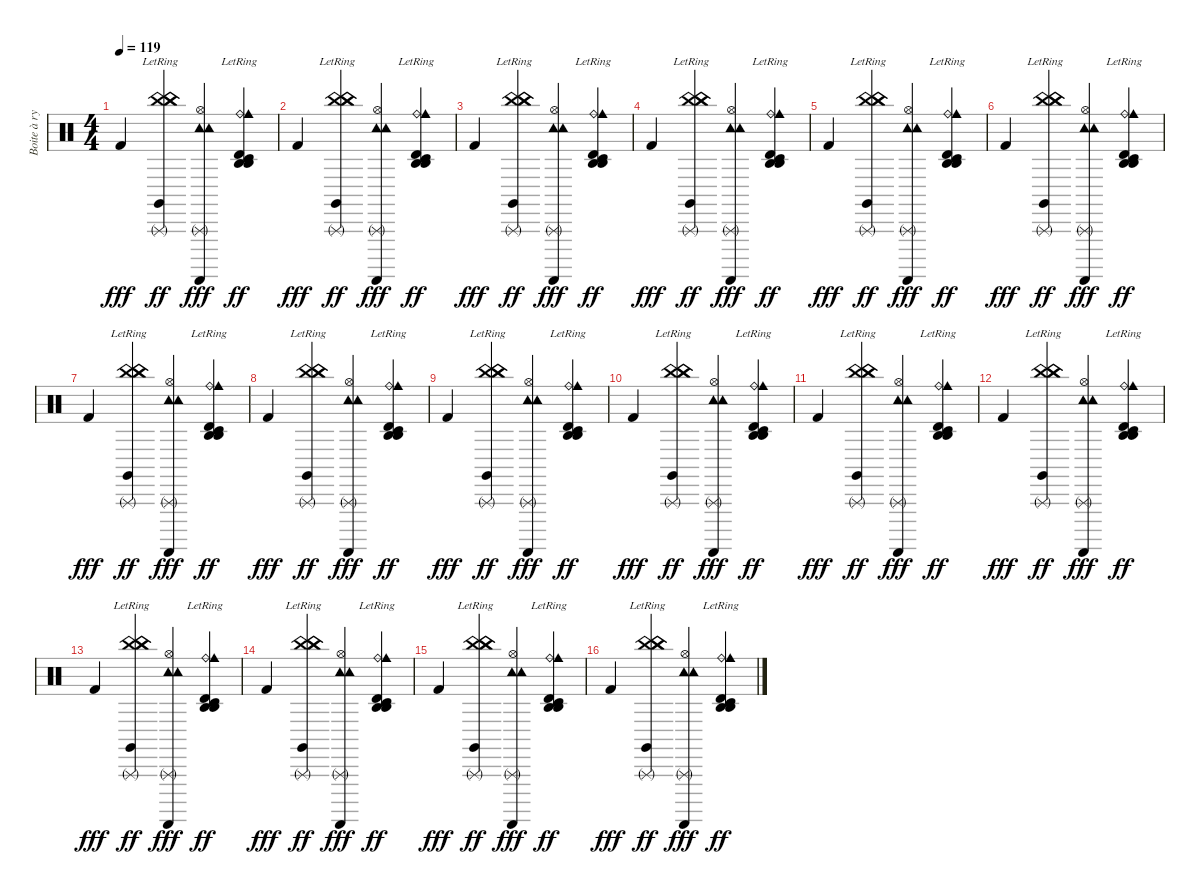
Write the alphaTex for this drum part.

\track ("Boite à rythme" "Boite à ry") {instrument percussion}
\staff {score}
\articulation defaults
\ts (4 4)
\tempo 119
\clef neutral
\ks c "Kick (hit) 2".4{dy fff}
("China (hit)" "China (hit)" "Triangle (rnute)" "Claves (hit)" "China (hit)"{lr}).4{dy ff} ("Hi-Hat (open)" "Tambourine (hit)" "Triangle (rnute)" "Guiro (scrap-return)" "Tambourine (hit)").4{dy fff} ("Ride (bell)" "Agogo high (hit)"{lr} "Timbale high (hit)" "Agogo high (hit)" "Cowbell medium (hit)" "Timbale low (hit)").4{dy ff} |
"Kick (hit) 2".4{dy fff} ("China (hit)" "China (hit)" "Triangle (rnute)" "Claves (hit)" "China (hit)"{lr}).4{dy ff} ("Hi-Hat (open)" "Tambourine (hit)" "Triangle (rnute)" "Guiro (scrap-return)" "Tambourine (hit)").4{dy fff} ("Ride (bell)" "Agogo high (hit)"{lr} "Timbale high (hit)" "Agogo high (hit)" "Cowbell medium (hit)" "Timbale low (hit)").4{dy ff} |
"Kick (hit) 2".4{dy fff} ("China (hit)" "China (hit)" "Triangle (rnute)" "Claves (hit)" "China (hit)"{lr}).4{dy ff} ("Hi-Hat (open)" "Tambourine (hit)" "Triangle (rnute)" "Guiro (scrap-return)" "Tambourine (hit)").4{dy fff} ("Ride (bell)" "Agogo high (hit)"{lr} "Timbale high (hit)" "Agogo high (hit)" "Cowbell medium (hit)" "Timbale low (hit)").4{dy ff} |
"Kick (hit) 2".4{dy fff} ("China (hit)" "China (hit)" "Triangle (rnute)" "Claves (hit)" "China (hit)"{lr}).4{dy ff} ("Hi-Hat (open)" "Tambourine (hit)" "Triangle (rnute)" "Guiro (scrap-return)" "Tambourine (hit)").4{dy fff} ("Ride (bell)" "Agogo high (hit)"{lr} "Timbale high (hit)" "Agogo high (hit)" "Cowbell medium (hit)" "Timbale low (hit)").4{dy ff} |
"Kick (hit) 2".4{dy fff} ("China (hit)" "China (hit)" "Triangle (rnute)" "Claves (hit)" "China (hit)"{lr}).4{dy ff} ("Hi-Hat (open)" "Tambourine (hit)" "Triangle (rnute)" "Guiro (scrap-return)" "Tambourine (hit)").4{dy fff} ("Ride (bell)" "Agogo high (hit)"{lr} "Timbale high (hit)" "Agogo high (hit)" "Cowbell medium (hit)" "Timbale low (hit)").4{dy ff} |
"Kick (hit) 2".4{dy fff} ("China (hit)" "China (hit)" "Triangle (rnute)" "Claves (hit)" "China (hit)"{lr}).4{dy ff} ("Hi-Hat (open)" "Tambourine (hit)" "Triangle (rnute)" "Guiro (scrap-return)" "Tambourine (hit)").4{dy fff} ("Ride (bell)" "Agogo high (hit)"{lr} "Timbale high (hit)" "Agogo high (hit)" "Cowbell medium (hit)" "Timbale low (hit)").4{dy ff} |
"Kick (hit) 2".4{dy fff} ("China (hit)" "China (hit)" "Triangle (rnute)" "Claves (hit)" "China (hit)"{lr}).4{dy ff} ("Hi-Hat (open)" "Tambourine (hit)" "Triangle (rnute)" "Guiro (scrap-return)" "Tambourine (hit)").4{dy fff} ("Ride (bell)" "Agogo high (hit)"{lr} "Timbale high (hit)" "Agogo high (hit)" "Cowbell medium (hit)" "Timbale low (hit)").4{dy ff} |
"Kick (hit) 2".4{dy fff} ("China (hit)" "China (hit)" "Triangle (rnute)" "Claves (hit)" "China (hit)"{lr}).4{dy ff} ("Hi-Hat (open)" "Tambourine (hit)" "Triangle (rnute)" "Guiro (scrap-return)" "Tambourine (hit)").4{dy fff} ("Ride (bell)" "Agogo high (hit)"{lr} "Timbale high (hit)" "Agogo high (hit)" "Cowbell medium (hit)" "Timbale low (hit)").4{dy ff} |
"Kick (hit) 2".4{dy fff} ("China (hit)" "China (hit)" "Triangle (rnute)" "Claves (hit)" "China (hit)"{lr}).4{dy ff} ("Hi-Hat (open)" "Tambourine (hit)" "Triangle (rnute)" "Guiro (scrap-return)" "Tambourine (hit)").4{dy fff} ("Ride (bell)" "Agogo high (hit)"{lr} "Timbale high (hit)" "Agogo high (hit)" "Cowbell medium (hit)" "Timbale low (hit)").4{dy ff} |
"Kick (hit) 2".4{dy fff} ("China (hit)" "China (hit)" "Triangle (rnute)" "Claves (hit)" "China (hit)"{lr}).4{dy ff} ("Hi-Hat (open)" "Tambourine (hit)" "Triangle (rnute)" "Guiro (scrap-return)" "Tambourine (hit)").4{dy fff} ("Ride (bell)" "Agogo high (hit)"{lr} "Timbale high (hit)" "Agogo high (hit)" "Cowbell medium (hit)" "Timbale low (hit)").4{dy ff} |
"Kick (hit) 2".4{dy fff} ("China (hit)" "China (hit)" "Triangle (rnute)" "Claves (hit)" "China (hit)"{lr}).4{dy ff} ("Hi-Hat (open)" "Tambourine (hit)" "Triangle (rnute)" "Guiro (scrap-return)" "Tambourine (hit)").4{dy fff} ("Ride (bell)" "Agogo high (hit)"{lr} "Timbale high (hit)" "Agogo high (hit)" "Cowbell medium (hit)" "Timbale low (hit)").4{dy ff} |
"Kick (hit) 2".4{dy fff} ("China (hit)" "China (hit)" "Triangle (rnute)" "Claves (hit)" "China (hit)"{lr}).4{dy ff} ("Hi-Hat (open)" "Tambourine (hit)" "Triangle (rnute)" "Guiro (scrap-return)" "Tambourine (hit)").4{dy fff} ("Ride (bell)" "Agogo high (hit)"{lr} "Timbale high (hit)" "Agogo high (hit)" "Cowbell medium (hit)" "Timbale low (hit)").4{dy ff} |
"Kick (hit) 2".4{dy fff} ("China (hit)" "China (hit)" "Triangle (rnute)" "Claves (hit)" "China (hit)"{lr}).4{dy ff} ("Hi-Hat (open)" "Tambourine (hit)" "Triangle (rnute)" "Guiro (scrap-return)" "Tambourine (hit)").4{dy fff} ("Ride (bell)" "Agogo high (hit)"{lr} "Timbale high (hit)" "Agogo high (hit)" "Cowbell medium (hit)" "Timbale low (hit)").4{dy ff} |
"Kick (hit) 2".4{dy fff} ("China (hit)" "China (hit)" "Triangle (rnute)" "Claves (hit)" "China (hit)"{lr}).4{dy ff} ("Hi-Hat (open)" "Tambourine (hit)" "Triangle (rnute)" "Guiro (scrap-return)" "Tambourine (hit)").4{dy fff} ("Ride (bell)" "Agogo high (hit)"{lr} "Timbale high (hit)" "Agogo high (hit)" "Cowbell medium (hit)" "Timbale low (hit)").4{dy ff} |
"Kick (hit) 2".4{dy fff} ("China (hit)" "China (hit)" "Triangle (rnute)" "Claves (hit)" "China (hit)"{lr}).4{dy ff} ("Hi-Hat (open)" "Tambourine (hit)" "Triangle (rnute)" "Guiro (scrap-return)" "Tambourine (hit)").4{dy fff} ("Ride (bell)" "Agogo high (hit)"{lr} "Timbale high (hit)" "Agogo high (hit)" "Cowbell medium (hit)" "Timbale low (hit)").4{dy ff} |
"Kick (hit) 2".4{dy fff} ("China (hit)" "China (hit)" "Triangle (rnute)" "Claves (hit)" "China (hit)"{lr}).4{dy ff} ("Hi-Hat (open)" "Tambourine (hit)" "Triangle (rnute)" "Guiro (scrap-return)" "Tambourine (hit)").4{dy fff} ("Ride (bell)" "Agogo high (hit)"{lr} "Timbale high (hit)" "Agogo high (hit)" "Cowbell medium (hit)" "Timbale low (hit)").4{dy ff}
